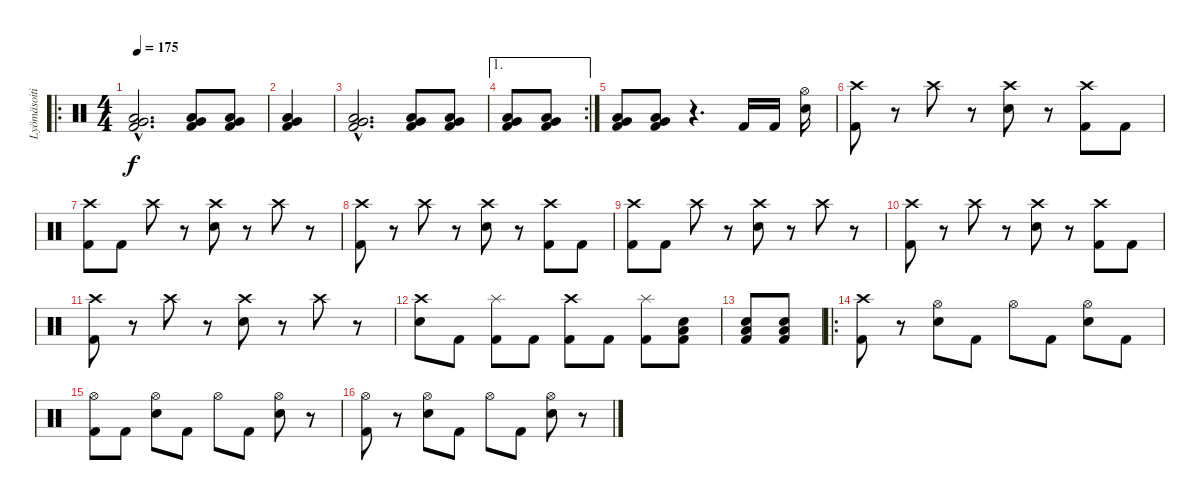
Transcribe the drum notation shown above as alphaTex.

\track ("Lyömäsoitin" "Lyömäsoiti") {instrument percussion}
\staff {score}
\articulation defaults
\ro
\ts (4 4)
\tempo 175
\clef neutral
\ks c
("Kick (hit) 2"{hac} "Very Low Tom (hit)"{hac} "Low Floor Tom (hit)"{hac}).2{d dy f} ("Kick (hit) 2" "Very Low Tom (hit)" "Low Floor Tom (hit)").8 ("Kick (hit) 2" "Very Low Tom (hit)" "Low Floor Tom (hit)").8 |
("Kick (hit) 2" "Very Low Tom (hit)" "Low Floor Tom (hit)").4 |
("Kick (hit) 2"{hac} "Very Low Tom (hit)"{hac} "Low Floor Tom (hit)"{hac}).2{d} ("Kick (hit) 2" "Very Low Tom (hit)" "Low Floor Tom (hit)").8 ("Kick (hit) 2" "Very Low Tom (hit)" "Low Floor Tom (hit)").8 |
\ae 1
\rc 2
("Kick (hit) 2" "Very Low Tom (hit)" "Low Floor Tom (hit)").8 ("Kick (hit) 2" "Very Low Tom (hit)" "Low Floor Tom (hit)").8 |
("Kick (hit) 2" "Very Low Tom (hit)" "Low Floor Tom (hit)").8 ("Kick (hit) 2" "Very Low Tom (hit)" "Low Floor Tom (hit)").8 r.4{d} "Kick (hit) 2".16 "Kick (hit) 2".16 ("Electric Snare (hit)" "Hi-Hat (open)").16 |
("Kick (hit) 2" "Crash high (hit)").8 r.8 "Crash high (hit)".8 r.8 ("Electric Snare (hit)" "Crash high (hit)").8 r.8 ("Kick (hit) 2" "Crash high (hit)").8 "Kick (hit) 2".8 |
("Kick (hit) 2" "Crash high (hit)").8 "Kick (hit) 2".8 "Crash high (hit)".8 r.8 ("Electric Snare (hit)" "Crash high (hit)").8 r.8 "Crash high (hit)".8 r.8 |
("Kick (hit) 2" "Crash high (hit)").8 r.8 "Crash high (hit)".8 r.8 ("Electric Snare (hit)" "Crash high (hit)").8 r.8 ("Kick (hit) 2" "Crash high (hit)").8 "Kick (hit) 2".8 |
("Kick (hit) 2" "Crash high (hit)").8 "Kick (hit) 2".8 "Crash high (hit)".8 r.8 ("Electric Snare (hit)" "Crash high (hit)").8 r.8 "Crash high (hit)".8 r.8 |
("Kick (hit) 2" "Crash high (hit)").8 r.8 "Crash high (hit)".8 r.8 ("Electric Snare (hit)" "Crash high (hit)").8 r.8 ("Kick (hit) 2" "Crash high (hit)").8 "Kick (hit) 2".8 |
("Kick (hit) 2" "Crash high (hit)").8 r.8 "Crash high (hit)".8 r.8 ("Electric Snare (hit)" "Crash high (hit)").8 r.8 "Crash high (hit)".8 r.8 |
("Electric Snare (hit)" "Crash high (hit)").8 "Kick (hit) 2".8 ("Kick (hit) 2" "Splash (hit)").8 "Kick (hit) 2".8 ("Kick (hit) 2" "Crash high (hit)").8 "Kick (hit) 2".8 ("Kick (hit) 2" "Splash (hit)").8 ("Kick (hit) 2" "Electric Snare (hit)" "Low Floor Tom (hit)").8 |
("Kick (hit) 2" "Electric Snare (hit)" "Low Floor Tom (hit)").8 ("Kick (hit) 2" "Electric Snare (hit)" "Low Floor Tom (hit)").8 |
\ro
("Kick (hit) 2" "Crash high (hit)").8 r.8 ("Electric Snare (hit)" "Hi-Hat (open)").8 "Kick (hit) 2".8 "Hi-Hat (open)".8 "Kick (hit) 2".8 ("Electric Snare (hit)" "Hi-Hat (open)").8 "Kick (hit) 2".8 |
("Kick (hit) 2" "Hi-Hat (open)").8 "Kick (hit) 2".8 ("Electric Snare (hit)" "Hi-Hat (open)").8 "Kick (hit) 2".8 "Hi-Hat (open)".8 "Kick (hit) 2".8 ("Electric Snare (hit)" "Hi-Hat (open)").8 r.8 |
("Kick (hit) 2" "Hi-Hat (open)").8 r.8 ("Electric Snare (hit)" "Hi-Hat (open)").8 "Kick (hit) 2".8 "Hi-Hat (open)".8 "Kick (hit) 2".8 ("Electric Snare (hit)" "Hi-Hat (open)").8 r.8
